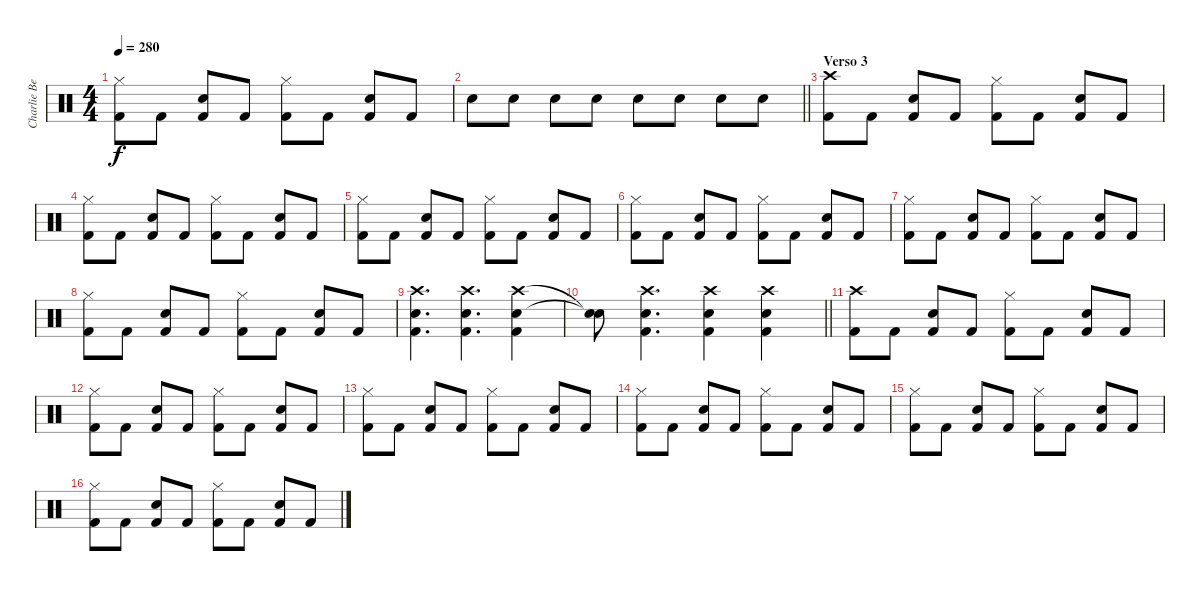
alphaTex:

\track ("Charlie Benante" "Charlie Be") {instrument percussion}
\staff {score}
\articulation defaults
\ts (4 4)
\tempo 280
\clef neutral
\ks c
("Hi-Hat (closed)" "Kick (hit) 2").8{dy f} "Kick (hit) 2".8 ("Snare (hit) 2" "Kick (hit) 2").8 "Kick (hit) 2".8 ("Hi-Hat (closed)" "Kick (hit) 2").8 "Kick (hit) 2".8 ("Snare (hit) 2" "Kick (hit) 2").8 "Kick (hit) 2".8 |
\barLineRight lightlight "Snare (hit) 2".8 "Snare (hit) 2".8 "Snare (hit) 2".8 "Snare (hit) 2".8 "Snare (hit) 2".8 "Snare (hit) 2".8 "Snare (hit) 2".8 "Snare (hit) 2".8
|
\section ("" "Verso 3")
("Crash high (hit)" "Kick (hit) 2").8 "Kick (hit) 2".8 ("Snare (hit) 2" "Kick (hit) 2").8 "Kick (hit) 2".8 ("Hi-Hat (closed)" "Kick (hit) 2").8 "Kick (hit) 2".8 ("Snare (hit) 2" "Kick (hit) 2").8 "Kick (hit) 2".8 |
("Hi-Hat (closed)" "Kick (hit) 2").8 "Kick (hit) 2".8 ("Snare (hit) 2" "Kick (hit) 2").8 "Kick (hit) 2".8 ("Hi-Hat (closed)" "Kick (hit) 2").8 "Kick (hit) 2".8 ("Snare (hit) 2" "Kick (hit) 2").8 "Kick (hit) 2".8 |
("Hi-Hat (closed)" "Kick (hit) 2").8 "Kick (hit) 2".8 ("Snare (hit) 2" "Kick (hit) 2").8 "Kick (hit) 2".8 ("Hi-Hat (closed)" "Kick (hit) 2").8 "Kick (hit) 2".8 ("Snare (hit) 2" "Kick (hit) 2").8 "Kick (hit) 2".8 |
("Hi-Hat (closed)" "Kick (hit) 2").8 "Kick (hit) 2".8 ("Snare (hit) 2" "Kick (hit) 2").8 "Kick (hit) 2".8 ("Hi-Hat (closed)" "Kick (hit) 2").8 "Kick (hit) 2".8 ("Snare (hit) 2" "Kick (hit) 2").8 "Kick (hit) 2".8 |
("Hi-Hat (closed)" "Kick (hit) 2").8 "Kick (hit) 2".8 ("Snare (hit) 2" "Kick (hit) 2").8 "Kick (hit) 2".8 ("Hi-Hat (closed)" "Kick (hit) 2").8 "Kick (hit) 2".8 ("Snare (hit) 2" "Kick (hit) 2").8 "Kick (hit) 2".8 |
("Hi-Hat (closed)" "Kick (hit) 2").8 "Kick (hit) 2".8 ("Snare (hit) 2" "Kick (hit) 2").8 "Kick (hit) 2".8 ("Hi-Hat (closed)" "Kick (hit) 2").8 "Kick (hit) 2".8 ("Snare (hit) 2" "Kick (hit) 2").8 "Kick (hit) 2".8 |
("Crash high (hit)" "Snare (hit) 2" "Kick (hit) 2").4{d} ("Crash high (hit)" "Snare (hit) 2" "Kick (hit) 2").4{d} ("Crash high (hit)" "Snare (hit) 2" "Kick (hit) 2").4 |
\barLineRight lightlight
("Snare (hit)"{t} "Snare (hit)"{t}).8 ("Crash high (hit)" "Snare (hit) 2" "Kick (hit) 2").4{d} ("Crash high (hit)" "Snare (hit) 2" "Kick (hit) 2").4 ("Crash high (hit)" "Snare (hit) 2" "Kick (hit) 2").4 |
("Crash high (hit)" "Kick (hit) 2").8 "Kick (hit) 2".8 ("Snare (hit) 2" "Kick (hit) 2").8 "Kick (hit) 2".8 ("Hi-Hat (closed)" "Kick (hit) 2").8 "Kick (hit) 2".8 ("Snare (hit) 2" "Kick (hit) 2").8 "Kick (hit) 2".8 |
("Hi-Hat (closed)" "Kick (hit) 2").8 "Kick (hit) 2".8 ("Snare (hit) 2" "Kick (hit) 2").8 "Kick (hit) 2".8 ("Hi-Hat (closed)" "Kick (hit) 2").8 "Kick (hit) 2".8 ("Snare (hit) 2" "Kick (hit) 2").8 "Kick (hit) 2".8 |
("Hi-Hat (closed)" "Kick (hit) 2").8 "Kick (hit) 2".8 ("Snare (hit) 2" "Kick (hit) 2").8 "Kick (hit) 2".8 ("Hi-Hat (closed)" "Kick (hit) 2").8 "Kick (hit) 2".8 ("Snare (hit) 2" "Kick (hit) 2").8 "Kick (hit) 2".8 |
("Hi-Hat (closed)" "Kick (hit) 2").8 "Kick (hit) 2".8 ("Snare (hit) 2" "Kick (hit) 2").8 "Kick (hit) 2".8 ("Hi-Hat (closed)" "Kick (hit) 2").8 "Kick (hit) 2".8 ("Snare (hit) 2" "Kick (hit) 2").8 "Kick (hit) 2".8 |
("Hi-Hat (closed)" "Kick (hit) 2").8 "Kick (hit) 2".8 ("Snare (hit) 2" "Kick (hit) 2").8 "Kick (hit) 2".8 ("Hi-Hat (closed)" "Kick (hit) 2").8 "Kick (hit) 2".8 ("Snare (hit) 2" "Kick (hit) 2").8 "Kick (hit) 2".8 |
("Hi-Hat (closed)" "Kick (hit) 2").8 "Kick (hit) 2".8 ("Snare (hit) 2" "Kick (hit) 2").8 "Kick (hit) 2".8 ("Hi-Hat (closed)" "Kick (hit) 2").8 "Kick (hit) 2".8 ("Snare (hit) 2" "Kick (hit) 2").8 "Kick (hit) 2".8
